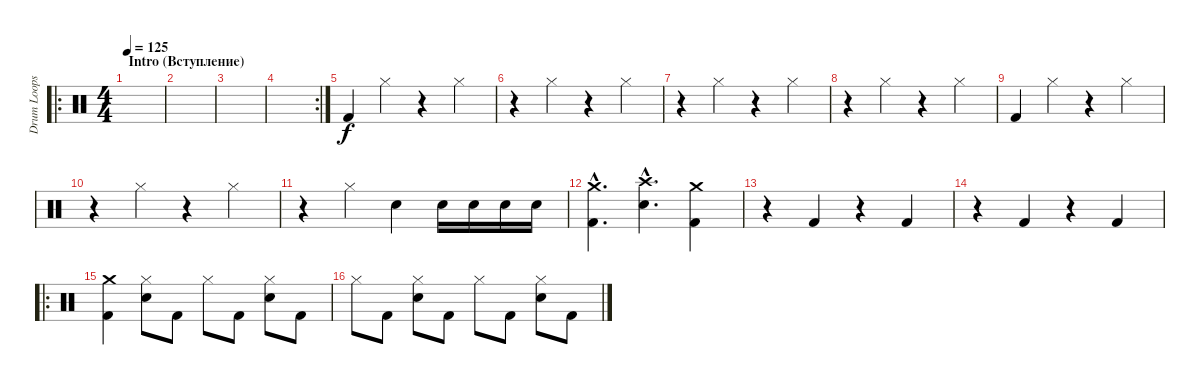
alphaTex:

\track ("Drum Loops (Дурачок)" "Drum Loops") {instrument percussion}
\staff {score}
\articulation defaults
\ro
\ts (4 4)
\section ("" "Intro (Вступление)")
\tempo 125
\clef neutral
\ks c
|
|
|
\rc 2
|
"Kick (hit) 2".4 "Hi-Hat (closed)".4 r.4 "Hi-Hat (closed)".4 |
r.4 "Hi-Hat (closed)".4 r.4 "Hi-Hat (closed)".4 |
r.4 "Hi-Hat (closed)".4 r.4 "Hi-Hat (closed)".4 |
r.4 "Hi-Hat (closed)".4 r.4 "Hi-Hat (closed)".4 |
"Kick (hit) 2".4 "Hi-Hat (closed)".4 r.4 "Hi-Hat (closed)".4 |
r.4 "Hi-Hat (closed)".4 r.4 "Hi-Hat (closed)".4 |
r.4 "Hi-Hat (closed)".4 "Snare (hit) 2".4 "Snare (hit) 2".16 "Snare (hit) 2".16 "Snare (hit) 2".16 "Snare (hit) 2".16 |
("Kick (hit) 2"{hac} "Crash medium (hit)"{hac}).4{d} ("Snare (hit) 2"{hac} "Crash high (hit)"{hac}).4{d} ("Kick (hit) 2" "Crash medium (hit)").4 |
r.4 "Kick (hit) 2".4 r.4 "Kick (hit) 2".4 |
r.4 "Kick (hit) 2".4 r.4 "Kick (hit) 2".4 |
\ro
("Kick (hit) 2" "Crash medium (hit)").4 ("Snare (hit) 2" "Hi-Hat (closed)").8 "Kick (hit) 2".8 "Hi-Hat (closed)".8 "Kick (hit) 2".8 ("Snare (hit) 2" "Hi-Hat (closed)").8 "Kick (hit) 2".8 |
"Hi-Hat (closed)".8 "Kick (hit) 2".8 ("Snare (hit) 2" "Hi-Hat (closed)").8 "Kick (hit) 2".8 "Hi-Hat (closed)".8 "Kick (hit) 2".8 ("Snare (hit) 2" "Hi-Hat (closed)").8 "Kick (hit) 2".8
